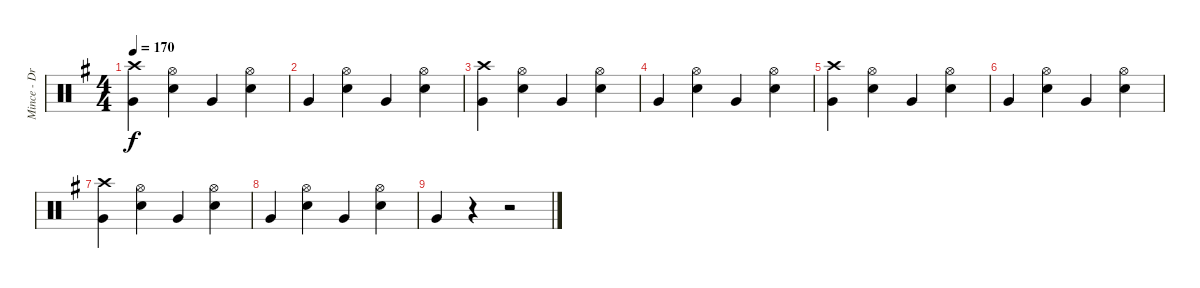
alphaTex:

\track ("Mince - Drums" "Mince - Dr") {instrument percussion}
\staff {score}
\articulation defaults
\ts (4 4)
\tempo 170
\clef neutral
\ks g
("Crash high (hit)" "Very Low Tom (hit)").4{dy f} ("Snare (hit) 2" "Hi-Hat (open)").4 "Very Low Tom (hit)".4 ("Snare (hit) 2" "Hi-Hat (open)").4 |
"Very Low Tom (hit)".4 ("Snare (hit) 2" "Hi-Hat (open)").4 "Very Low Tom (hit)".4 ("Snare (hit) 2" "Hi-Hat (open)").4 |
("Crash high (hit)" "Very Low Tom (hit)").4 ("Snare (hit) 2" "Hi-Hat (open)").4 "Very Low Tom (hit)".4 ("Snare (hit) 2" "Hi-Hat (open)").4 |
"Very Low Tom (hit)".4 ("Snare (hit) 2" "Hi-Hat (open)").4 "Very Low Tom (hit)".4 ("Snare (hit) 2" "Hi-Hat (open)").4 |
("Crash high (hit)" "Very Low Tom (hit)").4 ("Snare (hit) 2" "Hi-Hat (open)").4 "Very Low Tom (hit)".4 ("Snare (hit) 2" "Hi-Hat (open)").4 |
"Very Low Tom (hit)".4 ("Snare (hit) 2" "Hi-Hat (open)").4 "Very Low Tom (hit)".4 ("Snare (hit) 2" "Hi-Hat (open)").4 |
("Crash high (hit)" "Very Low Tom (hit)").4 ("Snare (hit) 2" "Hi-Hat (open)").4 "Very Low Tom (hit)".4 ("Snare (hit) 2" "Hi-Hat (open)").4 |
"Very Low Tom (hit)".4 ("Snare (hit) 2" "Hi-Hat (open)").4 "Very Low Tom (hit)".4 ("Snare (hit) 2" "Hi-Hat (open)").4 |
"Very Low Tom (hit)".4 r.4 r.2
